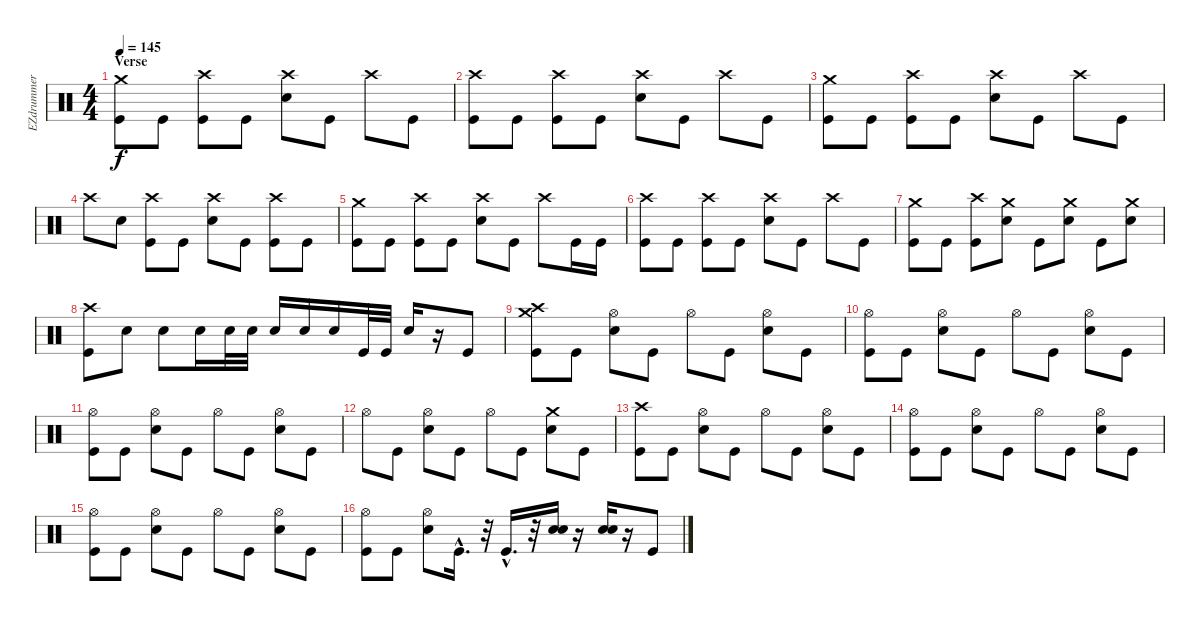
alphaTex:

\track ("EZdrummer 01" "EZdrummer ") {instrument percussion}
\staff {score}
\articulation defaults
\ts (4 4)
\section ("" "Verse")
\tempo 145
\clef neutral
\ks c
("Kick (hit)" "Crash medium (hit)").8{dy f} "Kick (hit)".8 ("Kick (hit)" "Crash high (hit)").8 "Kick (hit)".8 ("Snare (hit) 2" "Crash high (hit)").8 "Kick (hit)".8 "Crash high (hit)".8 "Kick (hit)".8 |
("Kick (hit)" "Crash high (hit)").8 "Kick (hit)".8 ("Kick (hit)" "Crash high (hit)").8 "Kick (hit)".8 ("Snare (hit) 2" "Crash high (hit)").8 "Kick (hit)".8 "Crash high (hit)".8 "Kick (hit)".8 |
("Kick (hit)" "Crash medium (hit)").8 "Kick (hit)".8 ("Kick (hit)" "Crash high (hit)").8 "Kick (hit)".8 ("Snare (hit) 2" "Crash high (hit)").8 "Kick (hit)".8 "Crash high (hit)".8 "Kick (hit)".8 |
"Crash high (hit)".8 "Snare (hit) 2".8 ("Kick (hit)" "Crash high (hit)").8 "Kick (hit)".8 ("Snare (hit) 2" "Crash high (hit)").8 "Kick (hit)".8 ("Kick (hit)" "Crash high (hit)").8 "Kick (hit)".8 |
("Crash medium (hit)" "Kick (hit)").8 "Kick (hit)".8 ("Crash high (hit)" "Kick (hit)").8 "Kick (hit)".8 ("Crash high (hit)" "Snare (hit) 2").8 "Kick (hit)".8 "Crash high (hit)".8 "Kick (hit)".16 "Kick (hit)".16 |
("Crash high (hit)" "Kick (hit)").8 "Kick (hit)".8 ("Crash high (hit)" "Kick (hit)").8 "Kick (hit)".8 ("Crash high (hit)" "Snare (hit) 2").8 "Kick (hit)".8 "Crash high (hit)".8 "Kick (hit)".8 |
("Crash medium (hit)" "Kick (hit)").8 "Kick (hit)".8 ("Crash high (hit)" "Kick (hit)").8 ("Snare (hit) 2" "Crash medium (hit)").8 "Kick (hit)".8 ("Snare (hit) 2" "Crash medium (hit)").8 "Kick (hit)".8 ("Snare (hit) 2" "Crash medium (hit)").8 |
("Kick (hit)" "Crash high (hit)").8 "Snare (hit) 2".8 "Snare (hit) 2".8 "Snare (hit) 2".16 "Snare (hit) 2".32 "Snare (hit) 2".32 "Snare (hit) 2".16 "Snare (hit) 2".16 "Snare (hit) 2".16 "Kick (hit)".32 "Kick (hit)".32 "Snare (hit) 2".16 r.16 "Kick (hit)".8 |
("Kick (hit)" "Crash high (hit)" "Crash medium (hit)").8 "Kick (hit)".8 ("Snare (hit) 2" "Hi-Hat (open)").8 "Kick (hit)".8 "Hi-Hat (open)".8 "Kick (hit)".8 ("Snare (hit) 2" "Hi-Hat (open)").8 "Kick (hit)".8 |
("Kick (hit)" "Hi-Hat (open)").8 "Kick (hit)".8 ("Snare (hit) 2" "Hi-Hat (open)").8 "Kick (hit)".8 "Hi-Hat (open)".8 "Kick (hit)".8 ("Snare (hit) 2" "Hi-Hat (open)").8 "Kick (hit)".8 |
("Kick (hit)" "Hi-Hat (open)").8 "Kick (hit)".8 ("Snare (hit) 2" "Hi-Hat (open)").8 "Kick (hit)".8 "Hi-Hat (open)".8 "Kick (hit)".8 ("Snare (hit) 2" "Hi-Hat (open)").8 "Kick (hit)".8 |
"Hi-Hat (open)".8 "Kick (hit)".8 ("Snare (hit) 2" "Hi-Hat (open)").8 "Kick (hit)".8 "Hi-Hat (open)".8 "Kick (hit)".8 ("Snare (hit) 2" "Crash medium (hit)").8 "Kick (hit)".8 |
("Kick (hit)" "Crash high (hit)").8 "Kick (hit)".8 ("Snare (hit) 2" "Hi-Hat (open)").8 "Kick (hit)".8 "Hi-Hat (open)".8 "Kick (hit)".8 ("Snare (hit) 2" "Hi-Hat (open)").8 "Kick (hit)".8 |
("Kick (hit)" "Hi-Hat (open)").8 "Kick (hit)".8 ("Snare (hit) 2" "Hi-Hat (open)").8 "Kick (hit)".8 "Hi-Hat (open)".8 "Kick (hit)".8 ("Snare (hit) 2" "Hi-Hat (open)").8 "Kick (hit)".8 |
("Kick (hit)" "Hi-Hat (open)").8 "Kick (hit)".8 ("Snare (hit) 2" "Hi-Hat (open)").8 "Kick (hit)".8 "Hi-Hat (open)".8 "Kick (hit)".8 ("Snare (hit) 2" "Hi-Hat (open)").8 "Kick (hit)".8 |
("Kick (hit)" "Hi-Hat (open)").8 "Kick (hit)".8 ("Snare (hit) 2" "Hi-Hat (open)").8 "Kick (hit)"{hac}.16{d} r.32 "Kick (hit)"{hac}.16{d} r.32 ("Snare (hit) 2" "Electric Snare (hit)").16 r.16 ("Snare (hit) 2" "Electric Snare (hit)").16 r.16 "Kick (hit)".8
